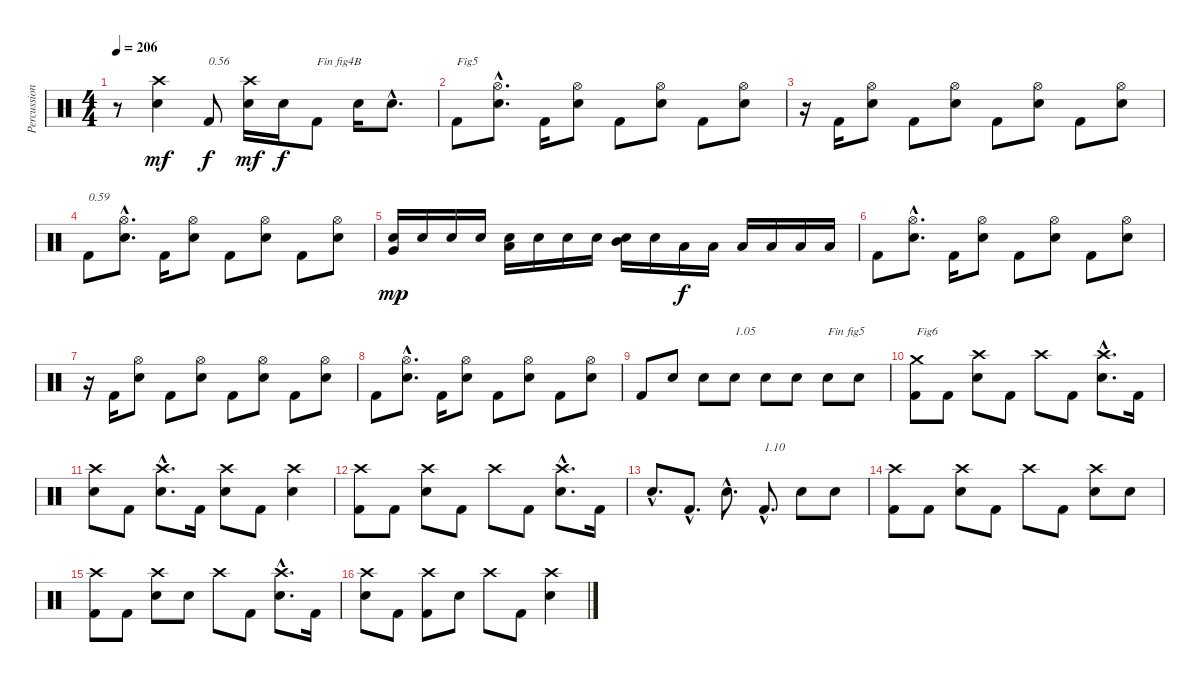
\track ("Percussions" "Percussion") {instrument percussion}
\staff {score}
\articulation defaults
\ts (4 4)
\tempo 206
\clef neutral
\ks c
r.8{dy f} ("Electric Snare (hit)" "Crash high (hit)").4{dy mf} "Kick (hit) 2".8{txt "0.56" dy f} ("Electric Snare (hit)" "Crash high (hit)").16{dy mf} "Electric Snare (hit)".16{dy f} "Kick (hit) 2".8{txt "Fin fig4B"} "Electric Snare (hit)".16 "Electric Snare (hit)"{hac}.8{d} |
"Kick (hit) 2".8{txt "Fig5"} ("Electric Snare (hit)"{hac} "Hi-Hat (open)"{hac}).8{d} "Kick (hit) 2".16 ("Electric Snare (hit)" "Hi-Hat (open)").8 "Kick (hit) 2".8 ("Electric Snare (hit)" "Hi-Hat (open)").8 "Kick (hit) 2".8 ("Electric Snare (hit)" "Hi-Hat (open)").8 |
r.16 "Kick (hit) 2".16 ("Electric Snare (hit)" "Hi-Hat (open)").8 "Kick (hit) 2".8 ("Electric Snare (hit)" "Hi-Hat (open)").8 "Kick (hit) 2".8 ("Electric Snare (hit)" "Hi-Hat (open)").8 "Kick (hit) 2".8 ("Electric Snare (hit)" "Hi-Hat (open)").8 |
"Kick (hit) 2".8{txt "0.59"} ("Electric Snare (hit)"{hac} "Hi-Hat (open)"{hac}).8{d} "Kick (hit) 2".16 ("Electric Snare (hit)" "Hi-Hat (open)").8 "Kick (hit) 2".8 ("Electric Snare (hit)" "Hi-Hat (open)").8 "Kick (hit) 2".8 ("Electric Snare (hit)" "Hi-Hat (open)").8 |
("Very Low Tom (hit)" "Electric Snare (hit)").16{dy mp} "Electric Snare (hit)".16 "Electric Snare (hit)".16 "Electric Snare (hit)".16 ("Low Tom (hit)" "Electric Snare (hit)").16 "Electric Snare (hit)".16 "Electric Snare (hit)".16 "Electric Snare (hit)".16 ("Mid Tom (hit)" "Electric Snare (hit)").16 "Electric Snare (hit)".16 "Low Floor Tom (hit)".16{dy f} "Low Floor Tom (hit)".16 "Low Floor Tom (hit)".16 "Low Floor Tom (hit)".16 "Low Floor Tom (hit)".16 "Low Floor Tom (hit)".16 |
"Kick (hit) 2".8 ("Electric Snare (hit)"{hac} "Hi-Hat (open)"{hac}).8{d} "Kick (hit) 2".16 ("Electric Snare (hit)" "Hi-Hat (open)").8 "Kick (hit) 2".8 ("Electric Snare (hit)" "Hi-Hat (open)").8 "Kick (hit) 2".8 ("Electric Snare (hit)" "Hi-Hat (open)").8 |
r.16 "Kick (hit) 2".16 ("Electric Snare (hit)" "Hi-Hat (open)").8 "Kick (hit) 2".8 ("Electric Snare (hit)" "Hi-Hat (open)").8 "Kick (hit) 2".8 ("Electric Snare (hit)" "Hi-Hat (open)").8 "Kick (hit) 2".8 ("Electric Snare (hit)" "Hi-Hat (open)").8 |
"Kick (hit) 2".8 ("Electric Snare (hit)"{hac} "Hi-Hat (open)"{hac}).8{d} "Kick (hit) 2".16 ("Electric Snare (hit)" "Hi-Hat (open)").8 "Kick (hit) 2".8 ("Electric Snare (hit)" "Hi-Hat (open)").8 "Kick (hit) 2".8 ("Electric Snare (hit)" "Hi-Hat (open)").8 |
"Kick (hit) 2".8 "Electric Snare (hit)".8 "Electric Snare (hit)".8 "Electric Snare (hit)".8{txt "1.05"} "Electric Snare (hit)".8 "Electric Snare (hit)".8 "Electric Snare (hit)".8{txt "Fin fig5"} "Electric Snare (hit)".8 |
("Kick (hit) 2" "Crash medium (hit)").8{txt "Fig6"} "Kick (hit) 2".8 ("Electric Snare (hit)" "Crash high (hit)").8 "Kick (hit) 2".8 "Crash high (hit)".8 "Kick (hit) 2".8 ("Electric Snare (hit)"{hac} "Crash high (hit)"{hac}).8{d} "Kick (hit) 2".16 |
("Electric Snare (hit)" "Crash high (hit)").8 "Kick (hit) 2".8 ("Electric Snare (hit)"{hac} "Crash high (hit)"{hac}).8{d} "Kick (hit) 2".16 ("Electric Snare (hit)" "Crash high (hit)").8 "Kick (hit) 2".8 ("Electric Snare (hit)" "Crash high (hit)").4 |
("Kick (hit) 2" "Crash high (hit)").8 "Kick (hit) 2".8 ("Electric Snare (hit)" "Crash high (hit)").8 "Kick (hit) 2".8 "Crash high (hit)".8 "Kick (hit) 2".8 ("Electric Snare (hit)"{hac} "Crash high (hit)"{hac}).8{d} "Kick (hit) 2".16 |
"Electric Snare (hit)"{hac}.8{d} "Kick (hit) 2"{hac}.8{d} "Electric Snare (hit)"{hac}.8{d} "Kick (hit) 2"{hac}.8{d txt "1.10"} "Electric Snare (hit)".8 "Electric Snare (hit)".8 |
("Kick (hit) 2" "Crash high (hit)").8 "Kick (hit) 2".8 ("Electric Snare (hit)" "Crash high (hit)").8 "Kick (hit) 2".8 "Crash high (hit)".8 "Kick (hit) 2".8 ("Electric Snare (hit)" "Crash high (hit)").8 "Electric Snare (hit)".8 |
("Kick (hit) 2" "Crash high (hit)").8 "Kick (hit) 2".8 ("Electric Snare (hit)" "Crash high (hit)").8 "Electric Snare (hit)".8 "Crash high (hit)".8 "Kick (hit) 2".8 ("Electric Snare (hit)"{hac} "Crash high (hit)"{hac}).8{d} "Kick (hit) 2".16 |
("Electric Snare (hit)" "Crash high (hit)").8 "Kick (hit) 2".8 ("Kick (hit) 2" "Crash high (hit)").8 "Electric Snare (hit)".8 "Crash high (hit)".8 "Kick (hit) 2".8 ("Electric Snare (hit)" "Crash high (hit)").4
